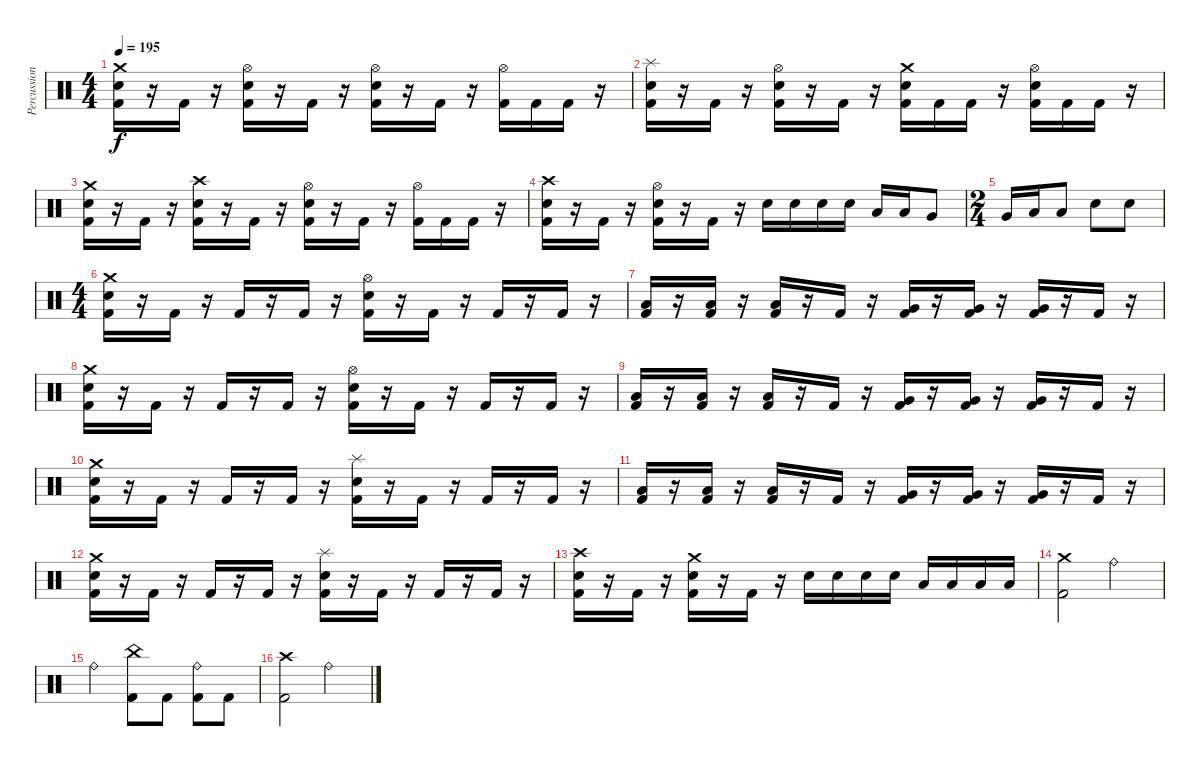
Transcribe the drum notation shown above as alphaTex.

\track ("Percussion" "Percussion") {instrument percussion}
\staff {score}
\articulation defaults
\ts (4 4)
\tempo 195
\clef neutral
\ks c
("Crash medium (hit)" "Electric Snare (hit)" "Kick (hit) 2").16{dy f} r.16 "Kick (hit) 2".16 r.16 ("Hi-Hat (open)" "Electric Snare (hit)" "Kick (hit) 2").16 r.16 "Kick (hit) 2".16 r.16 ("Hi-Hat (open)" "Electric Snare (hit)" "Kick (hit) 2").16 r.16 "Kick (hit) 2".16 r.16 ("Hi-Hat (open)" "Kick (hit) 2").16 "Kick (hit) 2".16 "Kick (hit) 2".16 r.16 |
("Splash (hit)" "Electric Snare (hit)" "Kick (hit) 2").16 r.16 "Kick (hit) 2".16 r.16 ("Hi-Hat (open)" "Electric Snare (hit)" "Kick (hit) 2").16 r.16 "Kick (hit) 2".16 r.16 ("Crash medium (hit)" "Electric Snare (hit)" "Kick (hit) 2").16 "Kick (hit) 2".16 "Kick (hit) 2".16 r.16 ("Hi-Hat (open)" "Electric Snare (hit)" "Kick (hit) 2").16 "Kick (hit) 2".16 "Kick (hit) 2".16 r.16 |
("Crash medium (hit)" "Electric Snare (hit)" "Kick (hit) 2").16 r.16 "Kick (hit) 2".16 r.16 ("Crash high (hit)" "Electric Snare (hit)" "Kick (hit) 2").16 r.16 "Kick (hit) 2".16 r.16 ("Hi-Hat (open)" "Electric Snare (hit)" "Kick (hit) 2").16 r.16 "Kick (hit) 2".16 r.16 ("Hi-Hat (open)" "Kick (hit) 2").16 "Kick (hit) 2".16 "Kick (hit) 2".16 r.16 |
("Crash high (hit)" "Electric Snare (hit)" "Kick (hit) 2").16 r.16 "Kick (hit) 2".16 r.16 ("Hi-Hat (open)" "Electric Snare (hit)" "Kick (hit) 2").16 r.16 "Kick (hit) 2".16 r.16 "Electric Snare (hit)".16 "Electric Snare (hit)".16 "Electric Snare (hit)".16 "Electric Snare (hit)".16 "Low Tom (hit)".16 "Low Tom (hit)".16 "Very Low Tom (hit)".8 |
\ts (2 4)
"Very Low Tom (hit)".16 "Low Floor Tom (hit)".16 "Low Floor Tom (hit)".8 "Electric Snare (hit)".8 "Electric Snare (hit)".8 |
\ts (4 4)
("Crash medium (hit)" "Electric Snare (hit)" "Kick (hit) 2").16 r.16 "Kick (hit) 2".16 r.16 "Kick (hit) 2".16 r.16 "Kick (hit) 2".16 r.16 ("Hi-Hat (open)" "Electric Snare (hit)" "Kick (hit) 2").16 r.16 "Kick (hit) 2".16 r.16 "Kick (hit) 2".16 r.16 "Kick (hit) 2".16 r.16 |
("Low Tom (hit)" "Kick (hit) 2").16 r.16 ("Low Tom (hit)" "Kick (hit) 2").16 r.16 ("Low Tom (hit)" "Kick (hit) 2").16 r.16 "Kick (hit) 2".16 r.16 ("Very Low Tom (hit)" "Kick (hit) 2").16 r.16 ("Very Low Tom (hit)" "Kick (hit) 2").16 r.16 ("Very Low Tom (hit)" "Kick (hit) 2").16 r.16 "Kick (hit) 2".16 r.16 |
("Crash medium (hit)" "Electric Snare (hit)" "Kick (hit) 2").16 r.16 "Kick (hit) 2".16 r.16 "Kick (hit) 2".16 r.16 "Kick (hit) 2".16 r.16 ("Hi-Hat (open)" "Electric Snare (hit)" "Kick (hit) 2").16 r.16 "Kick (hit) 2".16 r.16 "Kick (hit) 2".16 r.16 "Kick (hit) 2".16 r.16 |
("Low Tom (hit)" "Kick (hit) 2").16 r.16 ("Low Tom (hit)" "Kick (hit) 2").16 r.16 ("Low Tom (hit)" "Kick (hit) 2").16 r.16 "Kick (hit) 2".16 r.16 ("Very Low Tom (hit)" "Kick (hit) 2").16 r.16 ("Very Low Tom (hit)" "Kick (hit) 2").16 r.16 ("Very Low Tom (hit)" "Kick (hit) 2").16 r.16 "Kick (hit) 2".16 r.16 |
("Crash medium (hit)" "Electric Snare (hit)" "Kick (hit) 2").16 r.16 "Kick (hit) 2".16 r.16 "Kick (hit) 2".16 r.16 "Kick (hit) 2".16 r.16 ("Splash (hit)" "Electric Snare (hit)" "Kick (hit) 2").16 r.16 "Kick (hit) 2".16 r.16 "Kick (hit) 2".16 r.16 "Kick (hit) 2".16 r.16 |
("Low Tom (hit)" "Kick (hit) 2").16 r.16 ("Low Tom (hit)" "Kick (hit) 2").16 r.16 ("Low Tom (hit)" "Kick (hit) 2").16 r.16 "Kick (hit) 2".16 r.16 ("Very Low Tom (hit)" "Kick (hit) 2").16 r.16 ("Very Low Tom (hit)" "Kick (hit) 2").16 r.16 ("Very Low Tom (hit)" "Kick (hit) 2").16 r.16 "Kick (hit) 2".16 r.16 |
("Crash medium (hit)" "Electric Snare (hit)" "Kick (hit) 2").16 r.16 "Kick (hit) 2".16 r.16 "Kick (hit) 2".16 r.16 "Kick (hit) 2".16 r.16 ("Splash (hit)" "Electric Snare (hit)" "Kick (hit) 2").16 r.16 "Kick (hit) 2".16 r.16 "Kick (hit) 2".16 r.16 "Kick (hit) 2".16 r.16 |
("Crash high (hit)" "Electric Snare (hit)" "Kick (hit) 2").16 r.16 "Kick (hit) 2".16 r.16 ("Crash medium (hit)" "Electric Snare (hit)" "Kick (hit) 2").16 r.16 "Kick (hit) 2".16 r.16 "Electric Snare (hit)".16 "Electric Snare (hit)".16 "Electric Snare (hit)".16 "Electric Snare (hit)".16 "Low Tom (hit)".16 "Low Tom (hit)".16 "Low Floor Tom (hit)".16 "Low Floor Tom (hit)".16 |
("Crash medium (hit)" "Kick (hit) 2").2 "Ride (bell)".2 |
"Ride (bell)".2 ("China (hit)" "Kick (hit) 2").8 "Kick (hit) 2".8 ("Ride (bell)" "Kick (hit) 2").8 "Kick (hit) 2".8 |
("Crash high (hit)" "Kick (hit) 2").2 "Ride (bell)".2
